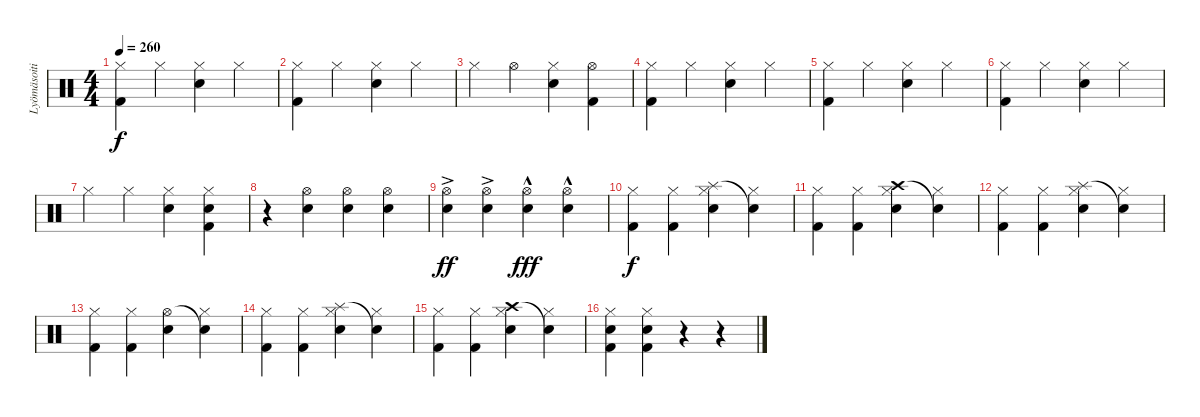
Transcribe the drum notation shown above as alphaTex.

\track ("Lyömäsoitin" "Lyömäsoiti") {instrument percussion}
\staff {score}
\articulation defaults
\ts (4 4)
\tempo 260
\clef neutral
\ks c
("Hi-Hat (closed)" "Kick (hit) 2").4{dy f} "Hi-Hat (closed)".4 ("Hi-Hat (closed)" "Electric Snare (hit)").4 "Hi-Hat (closed)".4 |
("Hi-Hat (closed)" "Kick (hit) 2").4 "Hi-Hat (closed)".4 ("Hi-Hat (closed)" "Electric Snare (hit)").4 "Hi-Hat (closed)".4 |
"Hi-Hat (closed)".4 "Hi-Hat (open)".4 ("Hi-Hat (closed)" "Electric Snare (hit)").4 ("Hi-Hat (open)" "Kick (hit) 2").4 |
("Hi-Hat (closed)" "Kick (hit) 2").4 "Hi-Hat (closed)".4 ("Hi-Hat (closed)" "Electric Snare (hit)").4 "Hi-Hat (closed)".4 |
("Hi-Hat (closed)" "Kick (hit) 2").4 "Hi-Hat (closed)".4 ("Hi-Hat (closed)" "Electric Snare (hit)").4 "Hi-Hat (closed)".4 |
("Hi-Hat (closed)" "Kick (hit) 2").4 "Hi-Hat (closed)".4 ("Hi-Hat (closed)" "Electric Snare (hit)").4 "Hi-Hat (closed)".4 |
"Hi-Hat (closed)".4 "Hi-Hat (closed)".4 ("Hi-Hat (closed)" "Electric Snare (hit)").4 ("Hi-Hat (closed)" "Electric Snare (hit)" "Kick (hit) 2").4 |
r.4 ("Hi-Hat (open)" "Electric Snare (hit)").4 ("Hi-Hat (open)" "Electric Snare (hit)").4 ("Hi-Hat (open)" "Electric Snare (hit)").4 |
("Hi-Hat (open)"{ac} "Electric Snare (hit)").4{dy ff} ("Hi-Hat (open)"{ac} "Electric Snare (hit)").4 ("Hi-Hat (open)"{hac} "Electric Snare (hit)").4{dy fff} ("Hi-Hat (open)"{hac} "Electric Snare (hit)").4 |
("Hi-Hat (closed)" "Kick (hit) 2").4{dy f} ("Hi-Hat (closed)" "Kick (hit) 2").4 ("Splash (hit)" "Hi-Hat (closed)" "Electric Snare (hit)").4 ("Snare (hit)"{t} "Hi-Hat (closed)").4 |
("Hi-Hat (closed)" "Kick (hit) 2").4 ("Hi-Hat (closed)" "Kick (hit) 2").4 ("Crash high (hit)" "Hi-Hat (closed)" "Electric Snare (hit)").4 ("Snare (hit)"{t} "Hi-Hat (closed)").4 |
("Hi-Hat (closed)" "Kick (hit) 2").4 ("Hi-Hat (closed)" "Kick (hit) 2").4 ("Splash (hit)" "Hi-Hat (closed)" "Electric Snare (hit)").4 ("Snare (hit)"{t} "Hi-Hat (closed)").4 |
("Hi-Hat (closed)" "Kick (hit) 2").4 ("Hi-Hat (closed)" "Kick (hit) 2").4 ("Hi-Hat (open)" "Electric Snare (hit)").4 ("Snare (hit)"{t} "Hi-Hat (closed)").4 |
("Hi-Hat (closed)" "Kick (hit) 2").4 ("Hi-Hat (closed)" "Kick (hit) 2").4 ("Splash (hit)" "Hi-Hat (closed)" "Electric Snare (hit)").4 ("Snare (hit)"{t} "Hi-Hat (closed)").4 |
("Hi-Hat (closed)" "Kick (hit) 2").4 ("Hi-Hat (closed)" "Kick (hit) 2").4 ("Crash high (hit)" "Hi-Hat (closed)" "Electric Snare (hit)").4 ("Snare (hit)"{t} "Hi-Hat (closed)").4 |
("Hi-Hat (closed)" "Electric Snare (hit)" "Kick (hit) 2").4 ("Hi-Hat (closed)" "Electric Snare (hit)" "Kick (hit) 2").4 r.4 r.4
